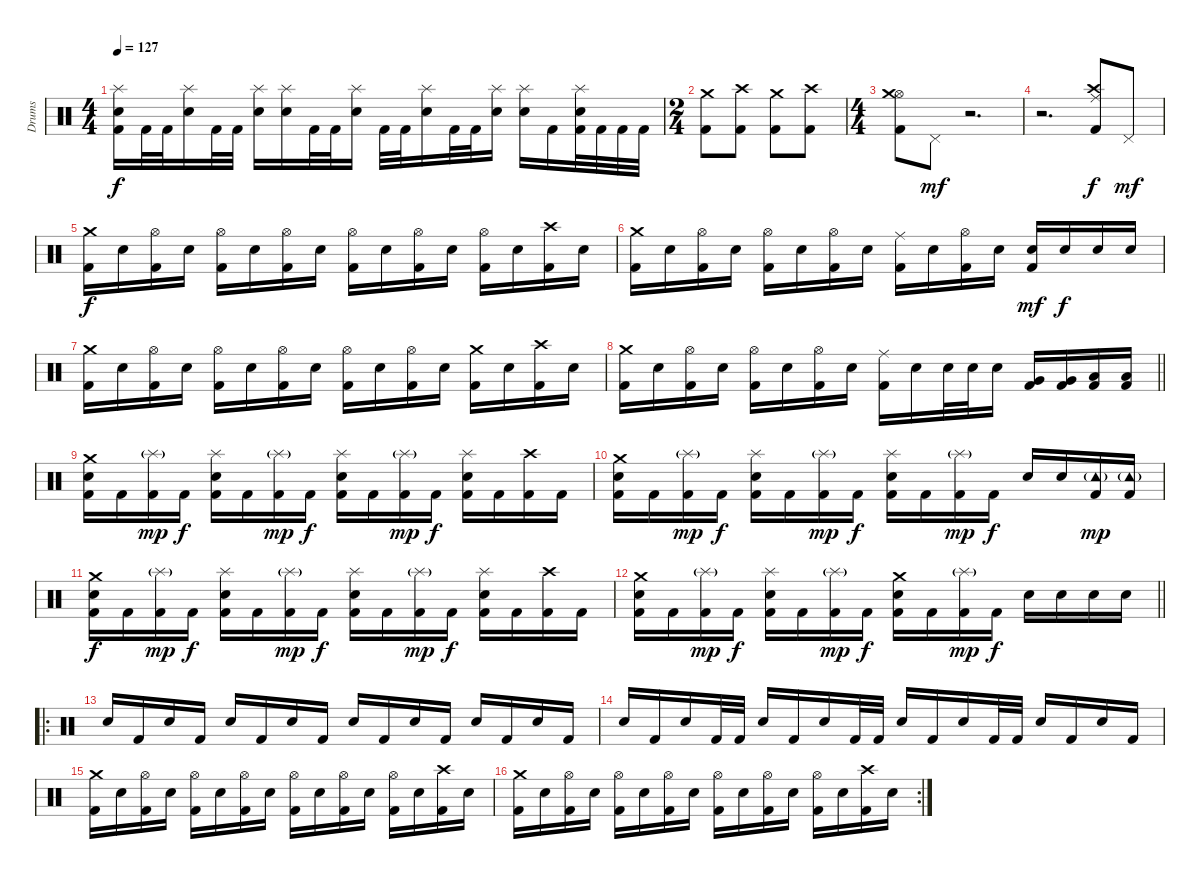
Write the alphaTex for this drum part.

\track ("Drums" "Drums") {instrument percussion}
\staff {score}
\articulation defaults
\ts (4 4)
\tempo 127
\clef neutral
\ks c
("Splash (hit)" "Electric Snare (hit)" "Kick (hit) 2").16{dy f} "Kick (hit) 2".32 "Kick (hit) 2".32 ("Splash (hit)" "Electric Snare (hit)").16 "Kick (hit) 2".32 "Kick (hit) 2".32 ("Splash (hit)" "Electric Snare (hit)").16 ("Splash (hit)" "Electric Snare (hit)").16 "Kick (hit) 2".32 "Kick (hit) 2".32 ("Splash (hit)" "Electric Snare (hit)").16 "Kick (hit) 2".32 "Kick (hit) 2".32 ("Splash (hit)" "Electric Snare (hit)").16 "Kick (hit) 2".32 "Kick (hit) 2".32 ("Splash (hit)" "Electric Snare (hit)").16 ("Splash (hit)" "Electric Snare (hit)").16 "Kick (hit) 2".16 ("Splash (hit)" "Electric Snare (hit)" "Kick (hit) 2").32 "Kick (hit) 2".32 "Kick (hit) 2".32 "Kick (hit) 2".32 |
\ts (2 4)
("Crash medium (hit)" "Kick (hit) 2").8 ("Crash high (hit)" "Kick (hit) 2").8 ("Crash medium (hit)" "Kick (hit) 2").8 ("Crash high (hit)" "Kick (hit) 2").8 |
\ts (4 4)
("Hi-Hat (open)" "Crash medium (hit)" "Kick (hit) 2").8 "Pedal Hi-Hat (hit)".8{dy mf} r.2{d} |
r.2{d} ("Crash high (hit)" "Ride (middle)" "Kick (hit) 2").8{dy f} "Pedal Hi-Hat (hit)".8{dy mf} |
("Crash medium (hit)" "Kick (hit) 2").16{dy f} "Electric Snare (hit)".16 ("Hi-Hat (open)" "Kick (hit) 2").16 "Electric Snare (hit)".16 ("Hi-Hat (open)" "Kick (hit) 2").16 "Electric Snare (hit)".16 ("Hi-Hat (open)" "Kick (hit) 2").16 "Electric Snare (hit)".16 ("Hi-Hat (open)" "Kick (hit) 2").16 "Electric Snare (hit)".16 ("Hi-Hat (open)" "Kick (hit) 2").16 "Electric Snare (hit)".16 ("Hi-Hat (open)" "Kick (hit) 2").16 "Electric Snare (hit)".16 ("Crash high (hit)" "Kick (hit) 2").16 "Electric Snare (hit)".16 |
("Crash medium (hit)" "Kick (hit) 2").16 "Electric Snare (hit)".16 ("Hi-Hat (open)" "Kick (hit) 2").16 "Electric Snare (hit)".16 ("Hi-Hat (open)" "Kick (hit) 2").16 "Electric Snare (hit)".16 ("Hi-Hat (open)" "Kick (hit) 2").16 "Electric Snare (hit)".16 ("Ride (middle)" "Kick (hit) 2").16 "Electric Snare (hit)".16 ("Hi-Hat (open)" "Kick (hit) 2").16 "Electric Snare (hit)".16 ("Electric Snare (hit)" "Kick (hit) 2").16{dy mf} "Electric Snare (hit)".16{dy f} "Electric Snare (hit)".16 "Electric Snare (hit)".16 |
("Crash medium (hit)" "Kick (hit) 2").16 "Electric Snare (hit)".16 ("Hi-Hat (open)" "Kick (hit) 2").16 "Electric Snare (hit)".16 ("Hi-Hat (open)" "Kick (hit) 2").16 "Electric Snare (hit)".16 ("Hi-Hat (open)" "Kick (hit) 2").16 "Electric Snare (hit)".16 ("Hi-Hat (open)" "Kick (hit) 2").16 "Electric Snare (hit)".16 ("Hi-Hat (open)" "Kick (hit) 2").16 "Electric Snare (hit)".16 ("Crash medium (hit)" "Kick (hit) 2").16 "Electric Snare (hit)".16 ("Crash high (hit)" "Kick (hit) 2").16 "Electric Snare (hit)".16 |
\barLineRight lightlight
("Crash medium (hit)" "Kick (hit) 2").16 "Electric Snare (hit)".16 ("Hi-Hat (open)" "Kick (hit) 2").16 "Electric Snare (hit)".16 ("Hi-Hat (open)" "Kick (hit) 2").16 "Electric Snare (hit)".16 ("Hi-Hat (open)" "Kick (hit) 2").16 "Electric Snare (hit)".16 ("Ride (middle)" "Kick (hit) 2").16 "Electric Snare (hit)".16 "Electric Snare (hit)".32 "Electric Snare (hit)".32 "Electric Snare (hit)".16 ("Very Low Tom (hit)" "Kick (hit) 2").16 ("Very Low Tom (hit)" "Kick (hit) 2").16 ("Low Floor Tom (hit)" "Kick (hit) 2").16 ("Low Floor Tom (hit)" "Kick (hit) 2").16 |
\section ("" "")
("Crash medium (hit)" "Electric Snare (hit)" "Kick (hit) 2").16 "Kick (hit) 2".16 ("Splash (hit)"{g} "Kick (hit) 2").16{dy mp} "Kick (hit) 2".16{dy f} ("Splash (hit)" "Electric Snare (hit)" "Kick (hit) 2").16 "Kick (hit) 2".16 ("Splash (hit)"{g} "Kick (hit) 2").16{dy mp} "Kick (hit) 2".16{dy f} ("Splash (hit)" "Electric Snare (hit)" "Kick (hit) 2").16 "Kick (hit) 2".16 ("Splash (hit)"{g} "Kick (hit) 2").16{dy mp} "Kick (hit) 2".16{dy f} ("Splash (hit)" "Electric Snare (hit)" "Kick (hit) 2").16 "Kick (hit) 2".16 ("Crash high (hit)" "Kick (hit) 2").16 "Kick (hit) 2".16 |
("Crash medium (hit)" "Electric Snare (hit)" "Kick (hit) 2").16 "Kick (hit) 2".16 ("Splash (hit)"{g} "Kick (hit) 2").16{dy mp} "Kick (hit) 2".16{dy f} ("Splash (hit)" "Electric Snare (hit)" "Kick (hit) 2").16 "Kick (hit) 2".16 ("Splash (hit)"{g} "Kick (hit) 2").16{dy mp} "Kick (hit) 2".16{dy f} ("Splash (hit)" "Electric Snare (hit)" "Kick (hit) 2").16 "Kick (hit) 2".16 ("Splash (hit)"{g} "Kick (hit) 2").16{dy mp} "Kick (hit) 2".16{dy f} "Electric Snare (hit)".16 "Electric Snare (hit)".16 ("Tambourine (hit)"{g} "Kick (hit) 2").16{dy mp} ("Tambourine (hit)"{g} "Kick (hit) 2").16 |
("Crash medium (hit)" "Electric Snare (hit)" "Kick (hit) 2").16{dy f} "Kick (hit) 2".16 ("Splash (hit)"{g} "Kick (hit) 2").16{dy mp} "Kick (hit) 2".16{dy f} ("Splash (hit)" "Electric Snare (hit)" "Kick (hit) 2").16 "Kick (hit) 2".16 ("Splash (hit)"{g} "Kick (hit) 2").16{dy mp} "Kick (hit) 2".16{dy f} ("Splash (hit)" "Electric Snare (hit)" "Kick (hit) 2").16 "Kick (hit) 2".16 ("Splash (hit)"{g} "Kick (hit) 2").16{dy mp} "Kick (hit) 2".16{dy f} ("Splash (hit)" "Electric Snare (hit)" "Kick (hit) 2").16 "Kick (hit) 2".16 ("Crash high (hit)" "Kick (hit) 2").16 "Kick (hit) 2".16 |
\barLineRight lightlight
("Crash medium (hit)" "Electric Snare (hit)" "Kick (hit) 2").16 "Kick (hit) 2".16 ("Splash (hit)"{g} "Kick (hit) 2").16{dy mp} "Kick (hit) 2".16{dy f} ("Splash (hit)" "Electric Snare (hit)" "Kick (hit) 2").16 "Kick (hit) 2".16 ("Splash (hit)"{g} "Kick (hit) 2").16{dy mp} "Kick (hit) 2".16{dy f} ("Crash medium (hit)" "Electric Snare (hit)" "Kick (hit) 2").16 "Kick (hit) 2".16 ("Splash (hit)"{g} "Kick (hit) 2").16{dy mp} "Kick (hit) 2".16{dy f} "Electric Snare (hit)".16 "Electric Snare (hit)".16 "Electric Snare (hit)".16 "Electric Snare (hit)".16 |
\ro
\section ("" "")
"Electric Snare (hit)".16 "Kick (hit) 2".16 "Electric Snare (hit)".16 "Kick (hit) 2".16 "Electric Snare (hit)".16 "Kick (hit) 2".16 "Electric Snare (hit)".16 "Kick (hit) 2".16 "Electric Snare (hit)".16 "Kick (hit) 2".16 "Electric Snare (hit)".16 "Kick (hit) 2".16 "Electric Snare (hit)".16 "Kick (hit) 2".16 "Electric Snare (hit)".16 "Kick (hit) 2".16 |
"Electric Snare (hit)".16 "Kick (hit) 2".16 "Electric Snare (hit)".16 "Kick (hit) 2".32 "Kick (hit) 2".32 "Electric Snare (hit)".16 "Kick (hit) 2".16 "Electric Snare (hit)".16 "Kick (hit) 2".32 "Kick (hit) 2".32 "Electric Snare (hit)".16 "Kick (hit) 2".16 "Electric Snare (hit)".16 "Kick (hit) 2".32 "Kick (hit) 2".32 "Electric Snare (hit)".16 "Kick (hit) 2".16 "Electric Snare (hit)".16 "Kick (hit) 2".16 |
("Crash medium (hit)" "Kick (hit) 2").16 "Electric Snare (hit)".16 ("Hi-Hat (open)" "Kick (hit) 2").16 "Electric Snare (hit)".16 ("Hi-Hat (open)" "Kick (hit) 2").16 "Electric Snare (hit)".16 ("Hi-Hat (open)" "Kick (hit) 2").16 "Electric Snare (hit)".16 ("Hi-Hat (open)" "Kick (hit) 2").16 "Electric Snare (hit)".16 ("Hi-Hat (open)" "Kick (hit) 2").16 "Electric Snare (hit)".16 ("Hi-Hat (open)" "Kick (hit) 2").16 "Electric Snare (hit)".16 ("Crash high (hit)" "Kick (hit) 2").16 "Electric Snare (hit)".16 |
\rc 2
("Crash medium (hit)" "Kick (hit) 2").16 "Electric Snare (hit)".16 ("Hi-Hat (open)" "Kick (hit) 2").16 "Electric Snare (hit)".16 ("Hi-Hat (open)" "Kick (hit) 2").16 "Electric Snare (hit)".16 ("Hi-Hat (open)" "Kick (hit) 2").16 "Electric Snare (hit)".16 ("Hi-Hat (open)" "Kick (hit) 2").16 "Electric Snare (hit)".16 ("Hi-Hat (open)" "Kick (hit) 2").16 "Electric Snare (hit)".16 ("Hi-Hat (open)" "Kick (hit) 2").16 "Electric Snare (hit)".16 ("Crash high (hit)" "Kick (hit) 2").16 "Electric Snare (hit)".16
